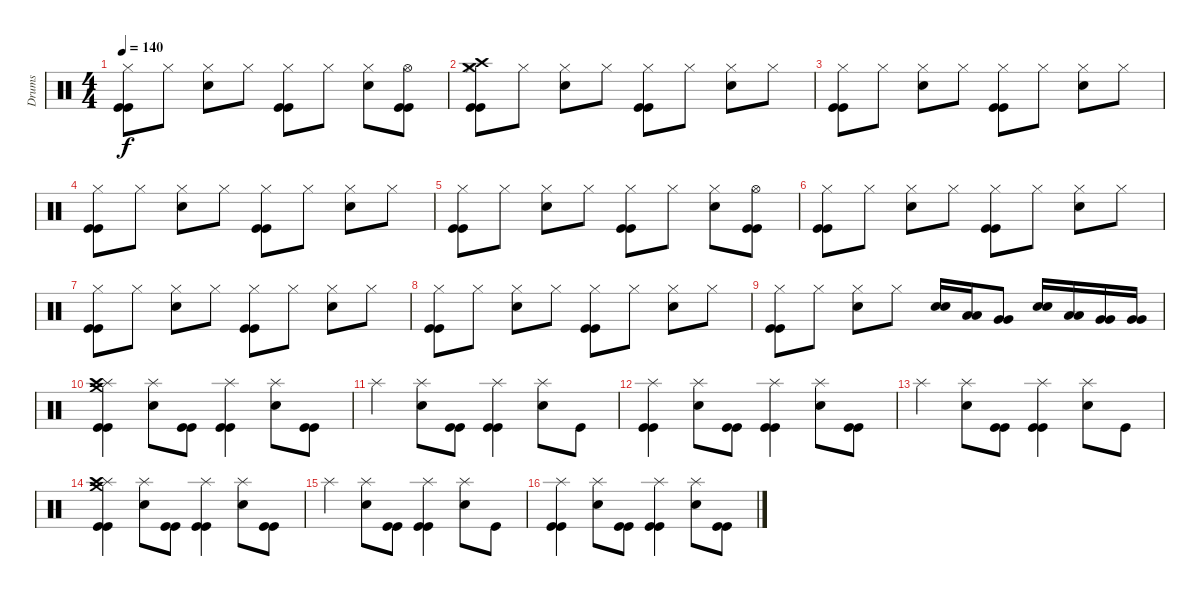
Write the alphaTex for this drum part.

\track ("Drums" "Drums") {instrument percussion}
\staff {score}
\articulation defaults
\ts (4 4)
\tempo 140
\clef neutral
\ks c
("Hi-Hat (closed)" "Kick (hit)" "Kick (hit)").8{dy f} "Hi-Hat (closed)".8 ("Hi-Hat (closed)" "Snare (hit) 2").8 "Hi-Hat (closed)".8 ("Hi-Hat (closed)" "Kick (hit)" "Kick (hit)").8 "Hi-Hat (closed)".8 ("Hi-Hat (closed)" "Snare (hit) 2").8 ("Hi-Hat (open)" "Kick (hit)" "Kick (hit)").8 |
("Hi-Hat (closed)" "Crash high (hit)" "Crash medium (hit)" "Kick (hit)" "Kick (hit)").8 "Hi-Hat (closed)".8 ("Hi-Hat (closed)" "Snare (hit) 2").8 "Hi-Hat (closed)".8 ("Hi-Hat (closed)" "Kick (hit)" "Kick (hit)").8 "Hi-Hat (closed)".8 ("Hi-Hat (closed)" "Snare (hit) 2").8 "Hi-Hat (closed)".8 |
("Hi-Hat (closed)" "Kick (hit)" "Kick (hit)").8 "Hi-Hat (closed)".8 ("Hi-Hat (closed)" "Snare (hit) 2").8 "Hi-Hat (closed)".8 ("Hi-Hat (closed)" "Kick (hit)" "Kick (hit)").8 "Hi-Hat (closed)".8 ("Hi-Hat (closed)" "Snare (hit) 2").8 "Hi-Hat (closed)".8 |
("Hi-Hat (closed)" "Kick (hit)" "Kick (hit)").8 "Hi-Hat (closed)".8 ("Hi-Hat (closed)" "Snare (hit) 2").8 "Hi-Hat (closed)".8 ("Hi-Hat (closed)" "Kick (hit)" "Kick (hit)").8 "Hi-Hat (closed)".8 ("Hi-Hat (closed)" "Snare (hit) 2").8 "Hi-Hat (closed)".8 |
("Hi-Hat (closed)" "Kick (hit)" "Kick (hit)").8 "Hi-Hat (closed)".8 ("Hi-Hat (closed)" "Snare (hit) 2").8 "Hi-Hat (closed)".8 ("Hi-Hat (closed)" "Kick (hit)" "Kick (hit)").8 "Hi-Hat (closed)".8 ("Hi-Hat (closed)" "Snare (hit) 2").8 ("Hi-Hat (open)" "Kick (hit)" "Kick (hit)").8 |
("Hi-Hat (closed)" "Kick (hit)" "Kick (hit)").8 "Hi-Hat (closed)".8 ("Hi-Hat (closed)" "Snare (hit) 2").8 "Hi-Hat (closed)".8 ("Hi-Hat (closed)" "Kick (hit)" "Kick (hit)").8 "Hi-Hat (closed)".8 ("Hi-Hat (closed)" "Snare (hit) 2").8 "Hi-Hat (closed)".8 |
("Hi-Hat (closed)" "Kick (hit)" "Kick (hit)").8 "Hi-Hat (closed)".8 ("Hi-Hat (closed)" "Snare (hit) 2").8 "Hi-Hat (closed)".8 ("Hi-Hat (closed)" "Kick (hit)" "Kick (hit)").8 "Hi-Hat (closed)".8 ("Hi-Hat (closed)" "Snare (hit) 2").8 "Hi-Hat (closed)".8 |
("Hi-Hat (closed)" "Kick (hit)" "Kick (hit)").8 "Hi-Hat (closed)".8 ("Hi-Hat (closed)" "Snare (hit) 2").8 "Hi-Hat (closed)".8 ("Hi-Hat (closed)" "Kick (hit)" "Kick (hit)").8 "Hi-Hat (closed)".8 ("Hi-Hat (closed)" "Snare (hit) 2").8 "Hi-Hat (closed)".8 |
("Hi-Hat (closed)" "Kick (hit)" "Kick (hit)").8 "Hi-Hat (closed)".8 ("Hi-Hat (closed)" "Snare (hit) 2").8 "Hi-Hat (closed)".8 ("Snare (hit) 2" "Snare (hit) 2").16 ("Low Tom (hit)" "Low Tom (hit)").16 ("Very Low Tom (hit)" "Very Low Tom (hit)").8 ("Snare (hit) 2" "Snare (hit) 2").16 ("Low Tom (hit)" "Low Tom (hit)").16 ("Very Low Tom (hit)" "Very Low Tom (hit)").16 ("Very Low Tom (hit)" "Very Low Tom (hit)").16 |
("Splash (hit)" "Crash high (hit)" "Crash medium (hit)" "Kick (hit)" "Kick (hit)").4 ("Splash (hit)" "Snare (hit) 2").8 ("Kick (hit)" "Kick (hit)").8 ("Splash (hit)" "Kick (hit)" "Kick (hit)").4 ("Splash (hit)" "Snare (hit) 2").8 ("Kick (hit)" "Kick (hit)").8 |
"Splash (hit)".4 ("Splash (hit)" "Snare (hit) 2").8 ("Kick (hit)" "Kick (hit)").8 ("Splash (hit)" "Kick (hit)" "Kick (hit)").4 ("Splash (hit)" "Snare (hit) 2").8 "Kick (hit)".8 |
("Splash (hit)" "Kick (hit)" "Kick (hit)").4 ("Splash (hit)" "Snare (hit) 2").8 ("Kick (hit)" "Kick (hit)").8 ("Splash (hit)" "Kick (hit)" "Kick (hit)").4 ("Splash (hit)" "Snare (hit) 2").8 ("Kick (hit)" "Kick (hit)").8 |
"Splash (hit)".4 ("Splash (hit)" "Snare (hit) 2").8 ("Kick (hit)" "Kick (hit)").8 ("Splash (hit)" "Kick (hit)" "Kick (hit)").4 ("Splash (hit)" "Snare (hit) 2").8 "Kick (hit)".8 |
("Splash (hit)" "Crash high (hit)" "Crash medium (hit)" "Kick (hit)" "Kick (hit)").4 ("Splash (hit)" "Snare (hit) 2").8 ("Kick (hit)" "Kick (hit)").8 ("Splash (hit)" "Kick (hit)" "Kick (hit)").4 ("Splash (hit)" "Snare (hit) 2").8 ("Kick (hit)" "Kick (hit)").8 |
"Splash (hit)".4 ("Splash (hit)" "Snare (hit) 2").8 ("Kick (hit)" "Kick (hit)").8 ("Splash (hit)" "Kick (hit)" "Kick (hit)").4 ("Splash (hit)" "Snare (hit) 2").8 "Kick (hit)".8 |
("Splash (hit)" "Kick (hit)" "Kick (hit)").4 ("Splash (hit)" "Snare (hit) 2").8 ("Kick (hit)" "Kick (hit)").8 ("Splash (hit)" "Kick (hit)" "Kick (hit)").4 ("Splash (hit)" "Snare (hit) 2").8 ("Kick (hit)" "Kick (hit)").8
